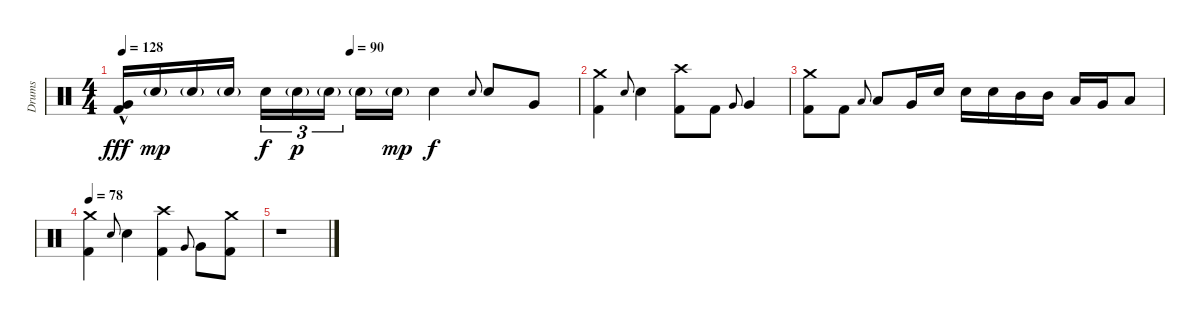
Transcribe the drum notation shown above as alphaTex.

\track ("Drums" "Drums") {instrument percussion}
\staff {score}
\articulation defaults
\ts (4 4)
\tempo 128
\tempo (90 0.5)
\clef neutral
\ks c
("Very Low Tom (hit)"{hac} "Kick (hit) 2").16{dy fff} "Electric Snare (hit)"{g}.16{dy mp} "Electric Snare (hit)"{g}.16 "Electric Snare (hit)"{g}.16 "Electric Snare (hit)".16{tu (3 2) dy f} "Electric Snare (hit)"{g}.16{tu (3 2) dy p} "Electric Snare (hit)"{g}.16{tu (3 2) beam splitsecondary} "Electric Snare (hit)"{g}.16 "Electric Snare (hit)"{g}.16{dy mp} "Electric Snare (hit)".4{dy f} "Electric Snare (hit)".8{gr onbeat} "Electric Snare (hit)".8 "Very Low Tom (hit)".8 |
("Crash medium (hit)" "Kick (hit) 2").4 "Electric Snare (hit)".8{gr onbeat} "Electric Snare (hit)".4 ("Crash high (hit)" "Kick (hit) 2").8 "Kick (hit) 2".8 "Very Low Tom (hit)".8{gr onbeat} "Very Low Tom (hit)".4 |
("Crash medium (hit)" "Kick (hit) 2").8 "Kick (hit) 2".8 "Low Tom (hit)".8{gr onbeat} "Low Tom (hit)".8 "Very Low Tom (hit)".16 "Electric Snare (hit)".16 "Electric Snare (hit)".16 "Electric Snare (hit)".16 "Mid Tom (hit)".16 "Mid Tom (hit)".16 "Low Tom (hit)".16 "Very Low Tom (hit)".16 "Low Floor Tom (hit)".8 |
\tempo 78
("Crash medium (hit)" "Kick (hit) 2").4 "Electric Snare (hit)".8{gr onbeat} "Electric Snare (hit)".4 ("Crash high (hit)" "Kick (hit) 2").4 "Very Low Tom (hit)".8{gr onbeat} "Very Low Tom (hit)".8 ("Crash medium (hit)" "Kick (hit) 2").8 |
r.1
